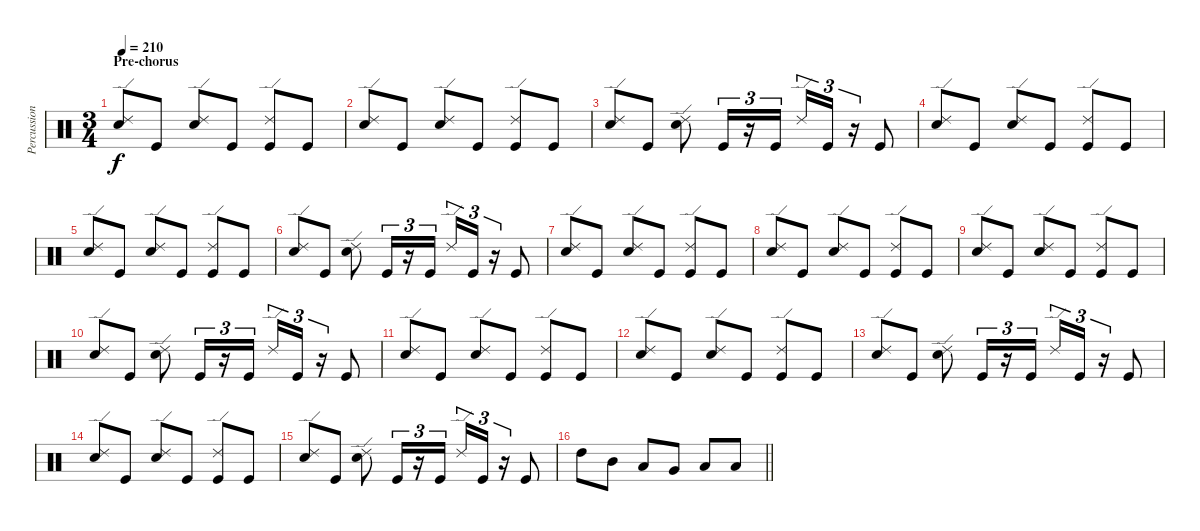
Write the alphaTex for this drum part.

\track ("Percussion" "Percussion") {instrument percussion}
\staff
\articulation defaults
\ts (3 4)
\section ("" "Pre-chorus")
\tempo 210
\clef neutral
\ks c
("Ride (edge) 2" "Snare (hit) 2").8{dy f} "Kick (hit)".8 ("Ride (edge) 2" "Snare (hit) 2").8 "Kick (hit)".8 ("Ride (edge) 2" "Kick (hit)").8 "Kick (hit)".8 |
("Ride (edge) 2" "Snare (hit) 2").8 "Kick (hit)".8 ("Ride (edge) 2" "Snare (hit) 2").8 "Kick (hit)".8 ("Ride (edge) 2" "Kick (hit)").8 "Kick (hit)".8 |
("Ride (edge) 2" "Snare (hit) 2").8 "Kick (hit)".8 ("Ride (edge) 2" "Snare (hit) 2").8 "Kick (hit)".16{tu (3 2)} r.16{tu (3 2)} "Kick (hit)".16{tu (3 2)} "Ride (edge) 2".16{tu (3 2)} "Kick (hit)".16{tu (3 2)} r.16{tu (3 2)} "Kick (hit)".8 |
("Ride (edge) 2" "Snare (hit) 2").8 "Kick (hit)".8 ("Ride (edge) 2" "Snare (hit) 2").8 "Kick (hit)".8 ("Ride (edge) 2" "Kick (hit)").8 "Kick (hit)".8 |
("Ride (edge) 2" "Snare (hit) 2").8 "Kick (hit)".8 ("Ride (edge) 2" "Snare (hit) 2").8 "Kick (hit)".8 ("Ride (edge) 2" "Kick (hit)").8 "Kick (hit)".8 |
("Ride (edge) 2" "Snare (hit) 2").8 "Kick (hit)".8 ("Ride (edge) 2" "Snare (hit) 2").8 "Kick (hit)".16{tu (3 2)} r.16{tu (3 2)} "Kick (hit)".16{tu (3 2)} "Ride (edge) 2".16{tu (3 2)} "Kick (hit)".16{tu (3 2)} r.16{tu (3 2)} "Kick (hit)".8 |
("Ride (edge) 2" "Snare (hit) 2").8 "Kick (hit)".8 ("Ride (edge) 2" "Snare (hit) 2").8 "Kick (hit)".8 ("Ride (edge) 2" "Kick (hit)").8 "Kick (hit)".8 |
("Ride (edge) 2" "Snare (hit) 2").8 "Kick (hit)".8 ("Ride (edge) 2" "Snare (hit) 2").8 "Kick (hit)".8 ("Ride (edge) 2" "Kick (hit)").8 "Kick (hit)".8 |
("Ride (edge) 2" "Snare (hit) 2").8 "Kick (hit)".8 ("Ride (edge) 2" "Snare (hit) 2").8 "Kick (hit)".8 ("Ride (edge) 2" "Kick (hit)").8 "Kick (hit)".8 |
("Ride (edge) 2" "Snare (hit) 2").8 "Kick (hit)".8 ("Ride (edge) 2" "Snare (hit) 2").8 "Kick (hit)".16{tu (3 2)} r.16{tu (3 2)} "Kick (hit)".16{tu (3 2)} "Ride (edge) 2".16{tu (3 2)} "Kick (hit)".16{tu (3 2)} r.16{tu (3 2)} "Kick (hit)".8 |
("Ride (edge) 2" "Snare (hit) 2").8 "Kick (hit)".8 ("Ride (edge) 2" "Snare (hit) 2").8 "Kick (hit)".8 ("Ride (edge) 2" "Kick (hit)").8 "Kick (hit)".8 |
("Ride (edge) 2" "Snare (hit) 2").8 "Kick (hit)".8 ("Ride (edge) 2" "Snare (hit) 2").8 "Kick (hit)".8 ("Ride (edge) 2" "Kick (hit)").8 "Kick (hit)".8 |
("Ride (edge) 2" "Snare (hit) 2").8 "Kick (hit)".8 ("Ride (edge) 2" "Snare (hit) 2").8 "Kick (hit)".16{tu (3 2)} r.16{tu (3 2)} "Kick (hit)".16{tu (3 2)} "Ride (edge) 2".16{tu (3 2)} "Kick (hit)".16{tu (3 2)} r.16{tu (3 2)} "Kick (hit)".8 |
("Ride (edge) 2" "Snare (hit) 2").8 "Kick (hit)".8 ("Ride (edge) 2" "Snare (hit) 2").8 "Kick (hit)".8 ("Ride (edge) 2" "Kick (hit)").8 "Kick (hit)".8 |
("Ride (edge) 2" "Snare (hit) 2").8 "Kick (hit)".8 ("Ride (edge) 2" "Snare (hit) 2").8 "Kick (hit)".16{tu (3 2)} r.16{tu (3 2)} "Kick (hit)".16{tu (3 2)} "Ride (edge) 2".16{tu (3 2)} "Kick (hit)".16{tu (3 2)} r.16{tu (3 2)} "Kick (hit)".8 |
\barLineRight lightlight "High Tom (hit)".8 "Mid Tom (hit)".8 "Low Tom (hit)".8 "Very Low Tom (hit)".8 "Low Floor Tom (hit)".8 "Low Floor Tom (hit)".8
